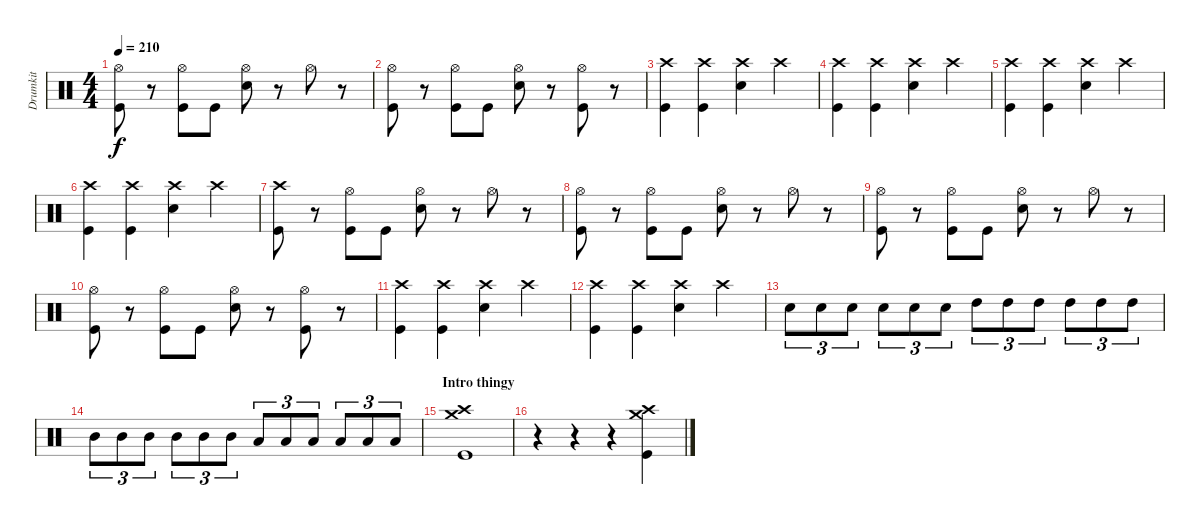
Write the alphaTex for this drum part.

\track ("Drumkit" "Drumkit") {instrument percussion}
\staff {score}
\articulation defaults
\ts (4 4)
\tempo 210
\clef neutral
\ks c
("Hi-Hat (open)" "Kick (hit)").8{dy f} r.8 ("Hi-Hat (open)" "Kick (hit)").8 "Kick (hit)".8 ("Hi-Hat (open)" "Snare (hit) 2").8 r.8 "Hi-Hat (open)".8 r.8 |
("Hi-Hat (open)" "Kick (hit)").8 r.8 ("Hi-Hat (open)" "Kick (hit)").8 "Kick (hit)".8 ("Hi-Hat (open)" "Snare (hit) 2").8 r.8 ("Hi-Hat (open)" "Kick (hit)").8 r.8 |
("Crash high (hit)" "Kick (hit)").4 ("Crash high (hit)" "Kick (hit)").4 ("Crash high (hit)" "Snare (hit) 2").4 "Crash high (hit)".4 |
("Crash high (hit)" "Kick (hit)").4 ("Crash high (hit)" "Kick (hit)").4 ("Crash high (hit)" "Snare (hit) 2").4 "Crash high (hit)".4 |
("Crash high (hit)" "Kick (hit)").4 ("Crash high (hit)" "Kick (hit)").4 ("Crash high (hit)" "Snare (hit) 2").4 "Crash high (hit)".4 |
("Crash high (hit)" "Kick (hit)").4 ("Crash high (hit)" "Kick (hit)").4 ("Crash high (hit)" "Snare (hit) 2").4 "Crash high (hit)".4 |
("Crash high (hit)" "Kick (hit)").8 r.8 ("Hi-Hat (open)" "Kick (hit)").8 "Kick (hit)".8 ("Hi-Hat (open)" "Snare (hit) 2").8 r.8 "Hi-Hat (open)".8 r.8 |
("Hi-Hat (open)" "Kick (hit)").8 r.8 ("Hi-Hat (open)" "Kick (hit)").8 "Kick (hit)".8 ("Hi-Hat (open)" "Snare (hit) 2").8 r.8 "Hi-Hat (open)".8 r.8 |
("Hi-Hat (open)" "Kick (hit)").8 r.8 ("Hi-Hat (open)" "Kick (hit)").8 "Kick (hit)".8 ("Hi-Hat (open)" "Snare (hit) 2").8 r.8 "Hi-Hat (open)".8 r.8 |
("Hi-Hat (open)" "Kick (hit)").8 r.8 ("Hi-Hat (open)" "Kick (hit)").8 "Kick (hit)".8 ("Hi-Hat (open)" "Snare (hit) 2").8 r.8 ("Hi-Hat (open)" "Kick (hit)").8 r.8 |
("Crash high (hit)" "Kick (hit)").4 ("Crash high (hit)" "Kick (hit)").4 ("Crash high (hit)" "Snare (hit) 2").4 "Crash high (hit)".4 |
("Crash high (hit)" "Kick (hit)").4 ("Crash high (hit)" "Kick (hit)").4 ("Crash high (hit)" "Snare (hit) 2").4 "Crash high (hit)".4 |
"Snare (hit) 2".8{tu (3 2)} "Snare (hit) 2".8{tu (3 2)} "Snare (hit) 2".8{tu (3 2)} "Snare (hit) 2".8{tu (3 2)} "Snare (hit) 2".8{tu (3 2)} "Snare (hit) 2".8{tu (3 2)} "High Tom (hit)".8{tu (3 2)} "High Tom (hit)".8{tu (3 2)} "High Tom (hit)".8{tu (3 2)} "High Tom (hit)".8{tu (3 2)} "High Tom (hit)".8{tu (3 2)} "High Tom (hit)".8{tu (3 2)} |
"Mid Tom (hit)".8{tu (3 2)} "Mid Tom (hit)".8{tu (3 2)} "Mid Tom (hit)".8{tu (3 2)} "Mid Tom (hit)".8{tu (3 2)} "Mid Tom (hit)".8{tu (3 2)} "Mid Tom (hit)".8{tu (3 2)} "Low Tom (hit)".8{tu (3 2)} "Low Tom (hit)".8{tu (3 2)} "Low Tom (hit)".8{tu (3 2)} "Low Tom (hit)".8{tu (3 2)} "Low Tom (hit)".8{tu (3 2)} "Low Tom (hit)".8{tu (3 2)} |
\section ("" "Intro thingy")
("Crash high (hit)" "Crash medium (hit)" "Kick (hit)").1 |
r.4 r.4 r.4 ("Crash high (hit)" "Crash medium (hit)" "Kick (hit)").4
